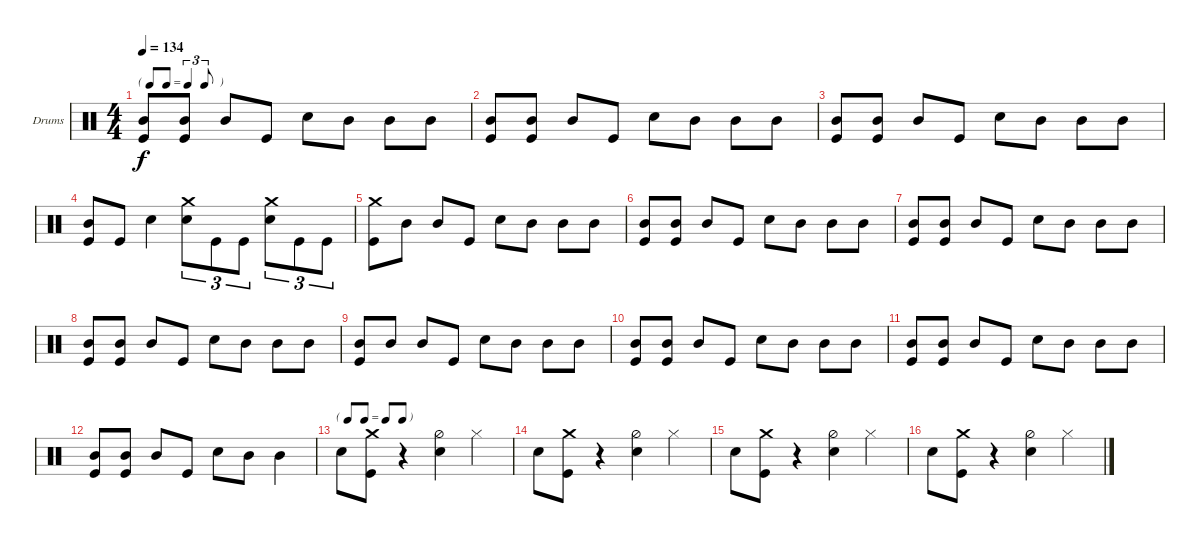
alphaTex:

\defaultSystemsLayout 4
\bracketExtendMode groupsimilarinstruments
\firstSystemTrackNameOrientation horizontal
\otherSystemsTrackNameOrientation horizontal
\track ("Drumkit" "Drums") {instrument percussion}
\staff {score}
\articulation defaults
\ts (4 4)
\tf triplet8th
\tempo 134
\clef neutral
\ks c
("Kick (hit)" "Mid Tom (hit)").8{dy f} ("Mid Tom (hit)" "Kick (hit)").8 "Mid Tom (hit)".8 "Kick (hit)".8 "Snare (hit) 2".8 "Mid Tom (hit)".8 "Mid Tom (hit)".8 "Mid Tom (hit)".8 |
("Kick (hit)" "Mid Tom (hit)").8 ("Mid Tom (hit)" "Kick (hit)").8 "Mid Tom (hit)".8 "Kick (hit)".8 "Snare (hit) 2".8 "Mid Tom (hit)".8 "Mid Tom (hit)".8 "Mid Tom (hit)".8 |
("Kick (hit)" "Mid Tom (hit)").8 ("Mid Tom (hit)" "Kick (hit)").8 "Mid Tom (hit)".8 "Kick (hit)".8 "Snare (hit) 2".8 "Mid Tom (hit)".8 "Mid Tom (hit)".8 "Mid Tom (hit)".8 |
("Kick (hit)" "Mid Tom (hit)").8 "Kick (hit)".8 "Snare (hit) 2".4 ("Snare (hit) 2" "Crash medium (hit)").8{tu (3 2)} "Kick (hit)".8{tu (3 2)} "Kick (hit)".8{tu (3 2)} ("Snare (hit) 2" "Crash medium (hit)").8{tu (3 2)} "Kick (hit)".8{tu (3 2)} "Kick (hit)".8{tu (3 2)} |
("Kick (hit)" "Crash medium (hit)").8 "Mid Tom (hit)".8 "Mid Tom (hit)".8 "Kick (hit)".8 "Snare (hit) 2".8 "Mid Tom (hit)".8 "Mid Tom (hit)".8 "Mid Tom (hit)".8 |
("Kick (hit)" "Mid Tom (hit)").8 ("Mid Tom (hit)" "Kick (hit)").8 "Mid Tom (hit)".8 "Kick (hit)".8 "Snare (hit) 2".8 "Mid Tom (hit)".8 "Mid Tom (hit)".8 "Mid Tom (hit)".8 |
("Kick (hit)" "Mid Tom (hit)").8 ("Mid Tom (hit)" "Kick (hit)").8 "Mid Tom (hit)".8 "Kick (hit)".8 "Snare (hit) 2".8 "Mid Tom (hit)".8 "Mid Tom (hit)".8 "Mid Tom (hit)".8 |
("Kick (hit)" "Mid Tom (hit)").8 ("Mid Tom (hit)" "Kick (hit)").8 "Mid Tom (hit)".8 "Kick (hit)".8 "Snare (hit) 2".8 "Mid Tom (hit)".8 "Mid Tom (hit)".8 "Mid Tom (hit)".8 |
("Kick (hit)" "Mid Tom (hit)").8 "Mid Tom (hit)".8 "Mid Tom (hit)".8 "Kick (hit)".8 "Snare (hit) 2".8 "Mid Tom (hit)".8 "Mid Tom (hit)".8 "Mid Tom (hit)".8 |
("Kick (hit)" "Mid Tom (hit)").8 ("Mid Tom (hit)" "Kick (hit)").8 "Mid Tom (hit)".8 "Kick (hit)".8 "Snare (hit) 2".8 "Mid Tom (hit)".8 "Mid Tom (hit)".8 "Mid Tom (hit)".8 |
("Kick (hit)" "Mid Tom (hit)").8 ("Mid Tom (hit)" "Kick (hit)").8 "Mid Tom (hit)".8 "Kick (hit)".8 "Snare (hit) 2".8 "Mid Tom (hit)".8 "Mid Tom (hit)".8 "Mid Tom (hit)".8 |
("Kick (hit)" "Mid Tom (hit)").8 ("Mid Tom (hit)" "Kick (hit)").8 "Mid Tom (hit)".8 "Kick (hit)".8 "Snare (hit) 2".8 "Mid Tom (hit)".8 "Mid Tom (hit)".4 |
\tf none "Snare (hit) 2".8
("Kick (hit)" "Crash medium (hit)").8 r.4 ("Snare (hit) 2" "Hi-Hat (half)").4 "Hi-Hat (closed)".4 |
"Snare (hit) 2".8 ("Kick (hit)" "Crash medium (hit)").8 r.4 ("Snare (hit) 2" "Hi-Hat (half)").4 "Hi-Hat (closed)".4 |
"Snare (hit) 2".8 ("Kick (hit)" "Crash medium (hit)").8 r.4 ("Snare (hit) 2" "Hi-Hat (half)").4 "Hi-Hat (closed)".4 |
"Snare (hit) 2".8 ("Kick (hit)" "Crash medium (hit)").8 r.4 ("Snare (hit) 2" "Hi-Hat (half)").4 "Hi-Hat (closed)".4
